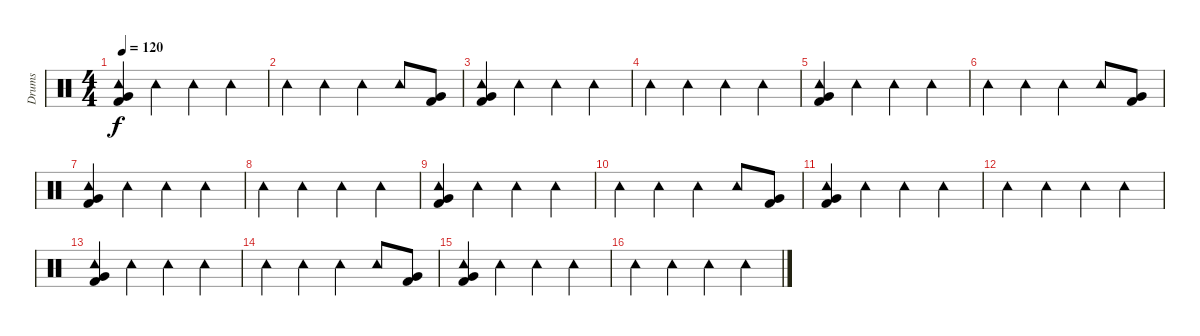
\track ("Drums" "Drums") {instrument percussion}
\staff {score}
\articulation defaults
\ts (4 4)
\tempo 120
\clef neutral
\ks c
("Tambourine (hit)" "Very Low Tom (hit)" "Kick (hit) 2").4{dy f} "Tambourine (hit)".4 "Tambourine (hit)".4 "Tambourine (hit)".4 |
"Tambourine (hit)".4 "Tambourine (hit)".4 "Tambourine (hit)".4 "Tambourine (hit)".8 ("Very Low Tom (hit)" "Kick (hit) 2").8 |
("Tambourine (hit)" "Very Low Tom (hit)" "Kick (hit) 2").4 "Tambourine (hit)".4 "Tambourine (hit)".4 "Tambourine (hit)".4 |
"Tambourine (hit)".4 "Tambourine (hit)".4 "Tambourine (hit)".4 "Tambourine (hit)".4 |
("Tambourine (hit)" "Very Low Tom (hit)" "Kick (hit) 2").4 "Tambourine (hit)".4 "Tambourine (hit)".4 "Tambourine (hit)".4 |
"Tambourine (hit)".4 "Tambourine (hit)".4 "Tambourine (hit)".4 "Tambourine (hit)".8 ("Very Low Tom (hit)" "Kick (hit) 2").8 |
("Tambourine (hit)" "Very Low Tom (hit)" "Kick (hit) 2").4 "Tambourine (hit)".4 "Tambourine (hit)".4 "Tambourine (hit)".4 |
"Tambourine (hit)".4 "Tambourine (hit)".4 "Tambourine (hit)".4 "Tambourine (hit)".4 |
("Tambourine (hit)" "Very Low Tom (hit)" "Kick (hit) 2").4 "Tambourine (hit)".4 "Tambourine (hit)".4 "Tambourine (hit)".4 |
"Tambourine (hit)".4 "Tambourine (hit)".4 "Tambourine (hit)".4 "Tambourine (hit)".8 ("Very Low Tom (hit)" "Kick (hit) 2").8 |
("Tambourine (hit)" "Very Low Tom (hit)" "Kick (hit) 2").4 "Tambourine (hit)".4 "Tambourine (hit)".4 "Tambourine (hit)".4 |
"Tambourine (hit)".4 "Tambourine (hit)".4 "Tambourine (hit)".4 "Tambourine (hit)".4 |
("Tambourine (hit)" "Very Low Tom (hit)" "Kick (hit) 2").4 "Tambourine (hit)".4 "Tambourine (hit)".4 "Tambourine (hit)".4 |
"Tambourine (hit)".4 "Tambourine (hit)".4 "Tambourine (hit)".4 "Tambourine (hit)".8 ("Very Low Tom (hit)" "Kick (hit) 2").8 |
("Tambourine (hit)" "Very Low Tom (hit)" "Kick (hit) 2").4 "Tambourine (hit)".4 "Tambourine (hit)".4 "Tambourine (hit)".4 |
"Tambourine (hit)".4 "Tambourine (hit)".4 "Tambourine (hit)".4 "Tambourine (hit)".4
